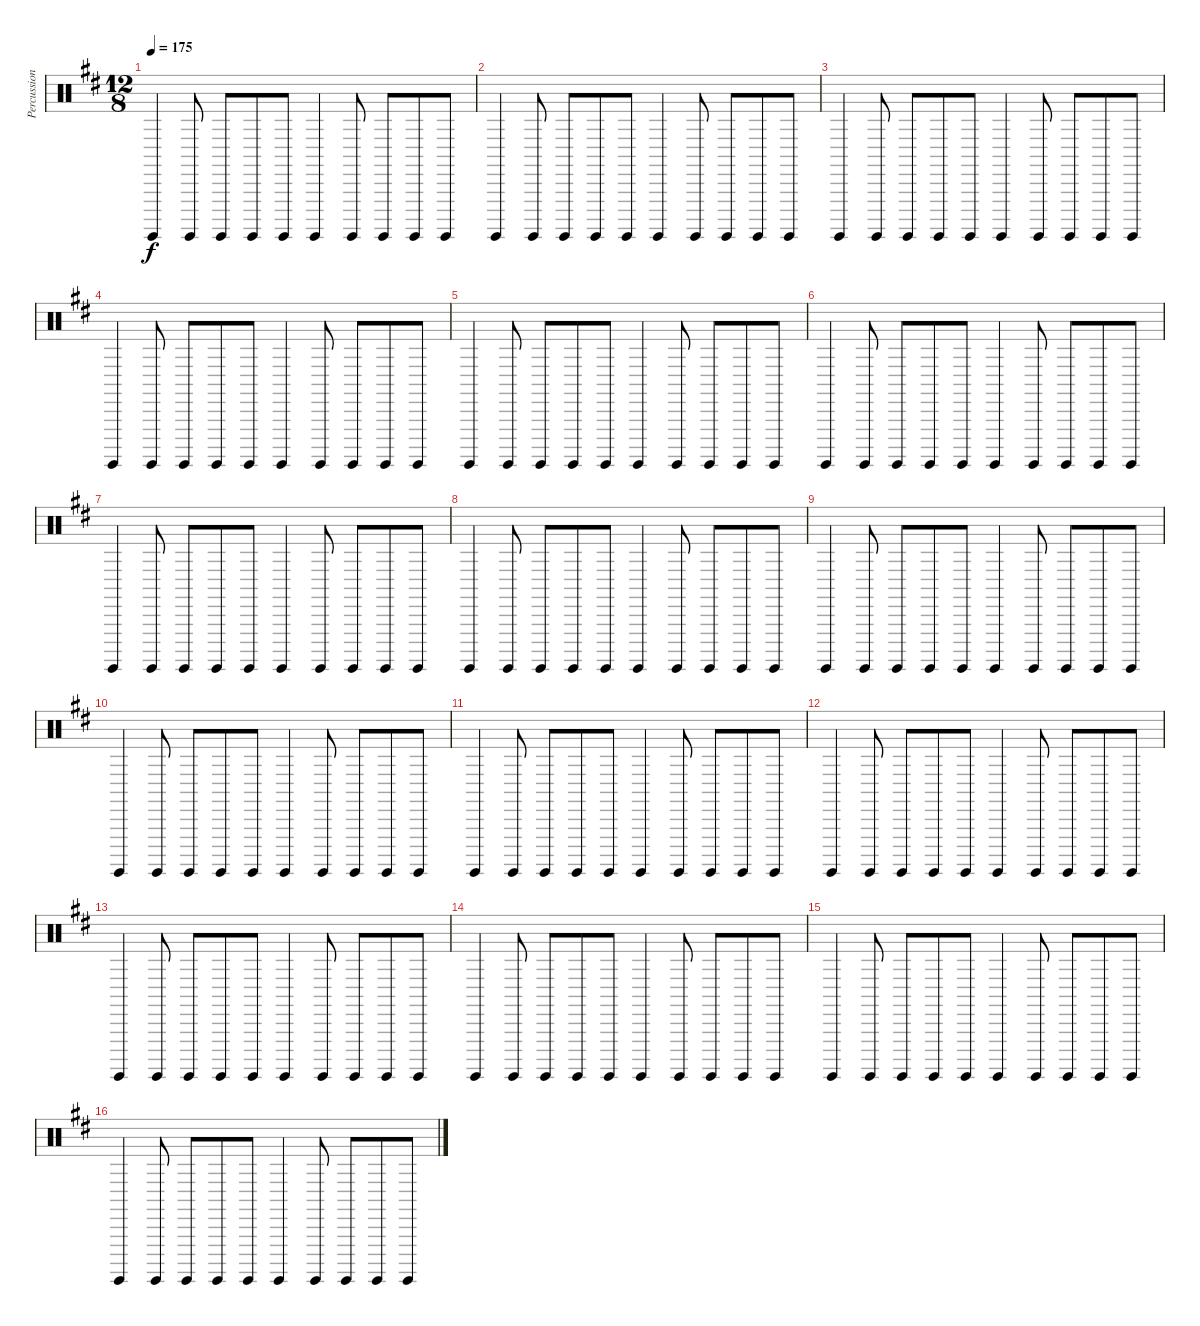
\track ("Percussion" "Percussion") {instrument percussion}
\staff {score}
\articulation defaults
\ts (12 8)
\tempo 175
\clef neutral
\ks d "Surdo (hit)".4{dy f} "Surdo (hit)".8 "Surdo (hit)".8 "Surdo (hit)".8 "Surdo (hit)".8 "Surdo (hit)".4 "Surdo (hit)".8 "Surdo (hit)".8 "Surdo (hit)".8 "Surdo (hit)".8
|
"Surdo (hit)".4 "Surdo (hit)".8 "Surdo (hit)".8 "Surdo (hit)".8 "Surdo (hit)".8 "Surdo (hit)".4 "Surdo (hit)".8 "Surdo (hit)".8 "Surdo (hit)".8 "Surdo (hit)".8 |
"Surdo (hit)".4 "Surdo (hit)".8 "Surdo (hit)".8 "Surdo (hit)".8 "Surdo (hit)".8 "Surdo (hit)".4 "Surdo (hit)".8 "Surdo (hit)".8 "Surdo (hit)".8 "Surdo (hit)".8 |
"Surdo (hit)".4 "Surdo (hit)".8 "Surdo (hit)".8 "Surdo (hit)".8 "Surdo (hit)".8 "Surdo (hit)".4 "Surdo (hit)".8 "Surdo (hit)".8 "Surdo (hit)".8 "Surdo (hit)".8 |
"Surdo (hit)".4 "Surdo (hit)".8 "Surdo (hit)".8 "Surdo (hit)".8 "Surdo (hit)".8 "Surdo (hit)".4 "Surdo (hit)".8 "Surdo (hit)".8 "Surdo (hit)".8 "Surdo (hit)".8 |
"Surdo (hit)".4 "Surdo (hit)".8 "Surdo (hit)".8 "Surdo (hit)".8 "Surdo (hit)".8 "Surdo (hit)".4 "Surdo (hit)".8 "Surdo (hit)".8 "Surdo (hit)".8 "Surdo (hit)".8 |
"Surdo (hit)".4 "Surdo (hit)".8 "Surdo (hit)".8 "Surdo (hit)".8 "Surdo (hit)".8 "Surdo (hit)".4 "Surdo (hit)".8 "Surdo (hit)".8 "Surdo (hit)".8 "Surdo (hit)".8 |
"Surdo (hit)".4 "Surdo (hit)".8 "Surdo (hit)".8 "Surdo (hit)".8 "Surdo (hit)".8 "Surdo (hit)".4 "Surdo (hit)".8 "Surdo (hit)".8 "Surdo (hit)".8 "Surdo (hit)".8 |
"Surdo (hit)".4 "Surdo (hit)".8 "Surdo (hit)".8 "Surdo (hit)".8 "Surdo (hit)".8 "Surdo (hit)".4 "Surdo (hit)".8 "Surdo (hit)".8 "Surdo (hit)".8 "Surdo (hit)".8 |
"Surdo (hit)".4 "Surdo (hit)".8 "Surdo (hit)".8 "Surdo (hit)".8 "Surdo (hit)".8 "Surdo (hit)".4 "Surdo (hit)".8 "Surdo (hit)".8 "Surdo (hit)".8 "Surdo (hit)".8 |
"Surdo (hit)".4 "Surdo (hit)".8 "Surdo (hit)".8 "Surdo (hit)".8 "Surdo (hit)".8 "Surdo (hit)".4 "Surdo (hit)".8 "Surdo (hit)".8 "Surdo (hit)".8 "Surdo (hit)".8 |
"Surdo (hit)".4 "Surdo (hit)".8 "Surdo (hit)".8 "Surdo (hit)".8 "Surdo (hit)".8 "Surdo (hit)".4 "Surdo (hit)".8 "Surdo (hit)".8 "Surdo (hit)".8 "Surdo (hit)".8 |
"Surdo (hit)".4 "Surdo (hit)".8 "Surdo (hit)".8 "Surdo (hit)".8 "Surdo (hit)".8 "Surdo (hit)".4 "Surdo (hit)".8 "Surdo (hit)".8 "Surdo (hit)".8 "Surdo (hit)".8 |
"Surdo (hit)".4 "Surdo (hit)".8 "Surdo (hit)".8 "Surdo (hit)".8 "Surdo (hit)".8 "Surdo (hit)".4 "Surdo (hit)".8 "Surdo (hit)".8 "Surdo (hit)".8 "Surdo (hit)".8 |
"Surdo (hit)".4 "Surdo (hit)".8 "Surdo (hit)".8 "Surdo (hit)".8 "Surdo (hit)".8 "Surdo (hit)".4 "Surdo (hit)".8 "Surdo (hit)".8 "Surdo (hit)".8 "Surdo (hit)".8 |
"Surdo (hit)".4 "Surdo (hit)".8 "Surdo (hit)".8 "Surdo (hit)".8 "Surdo (hit)".8 "Surdo (hit)".4 "Surdo (hit)".8 "Surdo (hit)".8 "Surdo (hit)".8 "Surdo (hit)".8
